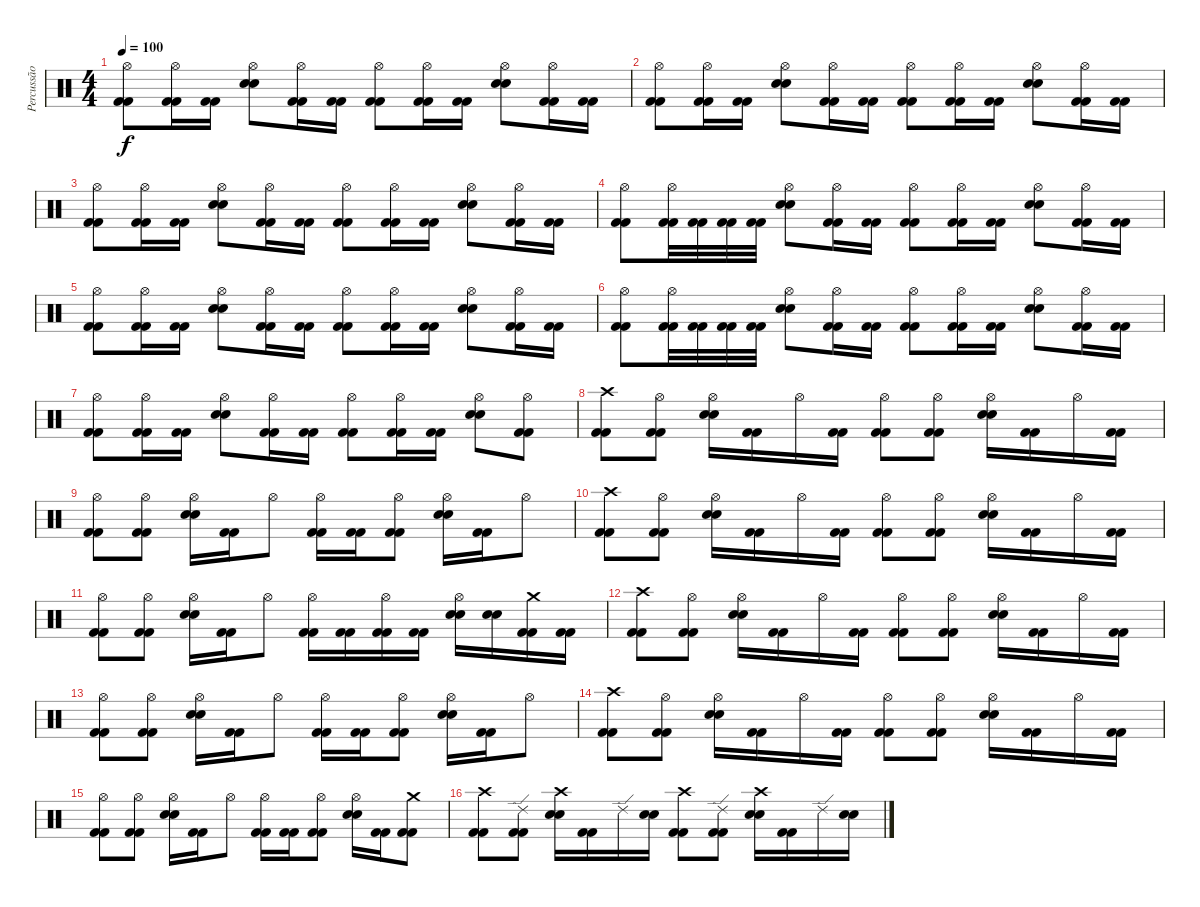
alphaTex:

\track ("Percussão" "Percussão") {instrument percussion}
\staff {score}
\articulation defaults
\ts (4 4)
\tempo 100
\clef neutral
\ks c
("Hi-Hat (open)" "Kick (hit) 2" "Kick (hit) 2").8{dy f} ("Hi-Hat (open)" "Kick (hit) 2" "Kick (hit) 2").16 ("Kick (hit) 2" "Kick (hit) 2").16 ("Hi-Hat (open)" "Electric Snare (hit)" "Electric Snare (hit)").8 ("Hi-Hat (open)" "Kick (hit) 2" "Kick (hit) 2").16 ("Kick (hit) 2" "Kick (hit) 2").16 ("Hi-Hat (open)" "Kick (hit) 2" "Kick (hit) 2").8 ("Hi-Hat (open)" "Kick (hit) 2" "Kick (hit) 2").16 ("Kick (hit) 2" "Kick (hit) 2").16 ("Hi-Hat (open)" "Electric Snare (hit)" "Electric Snare (hit)").8 ("Hi-Hat (open)" "Kick (hit) 2" "Kick (hit) 2").16 ("Kick (hit) 2" "Kick (hit) 2").16 |
("Hi-Hat (open)" "Kick (hit) 2" "Kick (hit) 2").8 ("Hi-Hat (open)" "Kick (hit) 2" "Kick (hit) 2").16 ("Kick (hit) 2" "Kick (hit) 2").16 ("Hi-Hat (open)" "Electric Snare (hit)" "Electric Snare (hit)").8 ("Hi-Hat (open)" "Kick (hit) 2" "Kick (hit) 2").16 ("Kick (hit) 2" "Kick (hit) 2").16 ("Hi-Hat (open)" "Kick (hit) 2" "Kick (hit) 2").8 ("Hi-Hat (open)" "Kick (hit) 2" "Kick (hit) 2").16 ("Kick (hit) 2" "Kick (hit) 2").16 ("Hi-Hat (open)" "Electric Snare (hit)" "Electric Snare (hit)").8 ("Hi-Hat (open)" "Kick (hit) 2" "Kick (hit) 2").16 ("Kick (hit) 2" "Kick (hit) 2").16 |
("Hi-Hat (open)" "Kick (hit) 2" "Kick (hit) 2").8 ("Hi-Hat (open)" "Kick (hit) 2" "Kick (hit) 2").16 ("Kick (hit) 2" "Kick (hit) 2").16 ("Hi-Hat (open)" "Electric Snare (hit)" "Electric Snare (hit)").8 ("Hi-Hat (open)" "Kick (hit) 2" "Kick (hit) 2").16 ("Kick (hit) 2" "Kick (hit) 2").16 ("Hi-Hat (open)" "Kick (hit) 2" "Kick (hit) 2").8 ("Hi-Hat (open)" "Kick (hit) 2" "Kick (hit) 2").16 ("Kick (hit) 2" "Kick (hit) 2").16 ("Hi-Hat (open)" "Electric Snare (hit)" "Electric Snare (hit)").8 ("Hi-Hat (open)" "Kick (hit) 2" "Kick (hit) 2").16 ("Kick (hit) 2" "Kick (hit) 2").16 |
("Hi-Hat (open)" "Kick (hit) 2" "Kick (hit) 2").8 ("Hi-Hat (open)" "Kick (hit) 2" "Kick (hit) 2").32 ("Kick (hit) 2" "Kick (hit) 2").32 ("Kick (hit) 2" "Kick (hit) 2").32 ("Kick (hit) 2" "Kick (hit) 2").32 ("Hi-Hat (open)" "Electric Snare (hit)" "Electric Snare (hit)").8 ("Hi-Hat (open)" "Kick (hit) 2" "Kick (hit) 2").16 ("Kick (hit) 2" "Kick (hit) 2").16 ("Hi-Hat (open)" "Kick (hit) 2" "Kick (hit) 2").8 ("Hi-Hat (open)" "Kick (hit) 2" "Kick (hit) 2").16 ("Kick (hit) 2" "Kick (hit) 2").16 ("Hi-Hat (open)" "Electric Snare (hit)" "Electric Snare (hit)").8 ("Hi-Hat (open)" "Kick (hit) 2" "Kick (hit) 2").16 ("Kick (hit) 2" "Kick (hit) 2").16 |
("Hi-Hat (open)" "Kick (hit) 2" "Kick (hit) 2").8 ("Hi-Hat (open)" "Kick (hit) 2" "Kick (hit) 2").16 ("Kick (hit) 2" "Kick (hit) 2").16 ("Hi-Hat (open)" "Electric Snare (hit)" "Electric Snare (hit)").8 ("Hi-Hat (open)" "Kick (hit) 2" "Kick (hit) 2").16 ("Kick (hit) 2" "Kick (hit) 2").16 ("Hi-Hat (open)" "Kick (hit) 2" "Kick (hit) 2").8 ("Hi-Hat (open)" "Kick (hit) 2" "Kick (hit) 2").16 ("Kick (hit) 2" "Kick (hit) 2").16 ("Hi-Hat (open)" "Electric Snare (hit)" "Electric Snare (hit)").8 ("Hi-Hat (open)" "Kick (hit) 2" "Kick (hit) 2").16 ("Kick (hit) 2" "Kick (hit) 2").16 |
("Hi-Hat (open)" "Kick (hit) 2" "Kick (hit) 2").8 ("Hi-Hat (open)" "Kick (hit) 2" "Kick (hit) 2").32 ("Kick (hit) 2" "Kick (hit) 2").32 ("Kick (hit) 2" "Kick (hit) 2").32 ("Kick (hit) 2" "Kick (hit) 2").32 ("Hi-Hat (open)" "Electric Snare (hit)" "Electric Snare (hit)").8 ("Hi-Hat (open)" "Kick (hit) 2" "Kick (hit) 2").16 ("Kick (hit) 2" "Kick (hit) 2").16 ("Hi-Hat (open)" "Kick (hit) 2" "Kick (hit) 2").8 ("Hi-Hat (open)" "Kick (hit) 2" "Kick (hit) 2").16 ("Kick (hit) 2" "Kick (hit) 2").16 ("Hi-Hat (open)" "Electric Snare (hit)" "Electric Snare (hit)").8 ("Hi-Hat (open)" "Kick (hit) 2" "Kick (hit) 2").16 ("Kick (hit) 2" "Kick (hit) 2").16 |
("Hi-Hat (open)" "Kick (hit) 2" "Kick (hit) 2").8 ("Hi-Hat (open)" "Kick (hit) 2" "Kick (hit) 2").16 ("Kick (hit) 2" "Kick (hit) 2").16 ("Hi-Hat (open)" "Electric Snare (hit)" "Electric Snare (hit)").8 ("Hi-Hat (open)" "Kick (hit) 2" "Kick (hit) 2").16 ("Kick (hit) 2" "Kick (hit) 2").16 ("Hi-Hat (open)" "Kick (hit) 2" "Kick (hit) 2").8 ("Hi-Hat (open)" "Kick (hit) 2" "Kick (hit) 2").16 ("Kick (hit) 2" "Kick (hit) 2").16 ("Hi-Hat (open)" "Electric Snare (hit)" "Electric Snare (hit)").8 ("Hi-Hat (open)" "Kick (hit) 2" "Kick (hit) 2").8 |
("Crash high (hit)" "Kick (hit) 2" "Kick (hit) 2").8 ("Hi-Hat (open)" "Kick (hit) 2" "Kick (hit) 2").8 ("Hi-Hat (open)" "Electric Snare (hit)" "Electric Snare (hit)").16 ("Kick (hit) 2" "Kick (hit) 2").16 "Hi-Hat (open)".16 ("Kick (hit) 2" "Kick (hit) 2").16 ("Hi-Hat (open)" "Kick (hit) 2" "Kick (hit) 2").8 ("Hi-Hat (open)" "Kick (hit) 2" "Kick (hit) 2").8 ("Hi-Hat (open)" "Electric Snare (hit)" "Electric Snare (hit)").16 ("Kick (hit) 2" "Kick (hit) 2").16 "Hi-Hat (open)".16 ("Kick (hit) 2" "Kick (hit) 2").16 |
("Hi-Hat (open)" "Kick (hit) 2" "Kick (hit) 2").8 ("Hi-Hat (open)" "Kick (hit) 2" "Kick (hit) 2").8 ("Hi-Hat (open)" "Electric Snare (hit)" "Electric Snare (hit)").16 ("Kick (hit) 2" "Kick (hit) 2").16 "Hi-Hat (open)".8 ("Hi-Hat (open)" "Kick (hit) 2" "Kick (hit) 2").16 ("Kick (hit) 2" "Kick (hit) 2").16 ("Hi-Hat (open)" "Kick (hit) 2" "Kick (hit) 2").8 ("Hi-Hat (open)" "Electric Snare (hit)" "Electric Snare (hit)").16 ("Kick (hit) 2" "Kick (hit) 2").16 "Hi-Hat (open)".8 |
("Crash high (hit)" "Kick (hit) 2" "Kick (hit) 2").8 ("Hi-Hat (open)" "Kick (hit) 2" "Kick (hit) 2").8 ("Hi-Hat (open)" "Electric Snare (hit)" "Electric Snare (hit)").16 ("Kick (hit) 2" "Kick (hit) 2").16 "Hi-Hat (open)".16 ("Kick (hit) 2" "Kick (hit) 2").16 ("Hi-Hat (open)" "Kick (hit) 2" "Kick (hit) 2").8 ("Hi-Hat (open)" "Kick (hit) 2" "Kick (hit) 2").8 ("Hi-Hat (open)" "Electric Snare (hit)" "Electric Snare (hit)").16 ("Kick (hit) 2" "Kick (hit) 2").16 "Hi-Hat (open)".16 ("Kick (hit) 2" "Kick (hit) 2").16 |
("Hi-Hat (open)" "Kick (hit) 2" "Kick (hit) 2").8 ("Hi-Hat (open)" "Kick (hit) 2" "Kick (hit) 2").8 ("Hi-Hat (open)" "Electric Snare (hit)" "Electric Snare (hit)").16 ("Kick (hit) 2" "Kick (hit) 2").16 "Hi-Hat (open)".8 ("Hi-Hat (open)" "Kick (hit) 2" "Kick (hit) 2").16 ("Kick (hit) 2" "Kick (hit) 2").16 ("Hi-Hat (open)" "Kick (hit) 2" "Kick (hit) 2").16 ("Kick (hit) 2" "Kick (hit) 2").16 ("Hi-Hat (open)" "Electric Snare (hit)" "Electric Snare (hit)").16 ("Electric Snare (hit)" "Electric Snare (hit)").16 ("Crash medium (hit)" "Kick (hit) 2" "Kick (hit) 2").16 ("Kick (hit) 2" "Kick (hit) 2").16 |
("Crash high (hit)" "Kick (hit) 2" "Kick (hit) 2").8 ("Hi-Hat (open)" "Kick (hit) 2" "Kick (hit) 2").8 ("Hi-Hat (open)" "Electric Snare (hit)" "Electric Snare (hit)").16 ("Kick (hit) 2" "Kick (hit) 2").16 "Hi-Hat (open)".16 ("Kick (hit) 2" "Kick (hit) 2").16 ("Hi-Hat (open)" "Kick (hit) 2" "Kick (hit) 2").8 ("Hi-Hat (open)" "Kick (hit) 2" "Kick (hit) 2").8 ("Hi-Hat (open)" "Electric Snare (hit)" "Electric Snare (hit)").16 ("Kick (hit) 2" "Kick (hit) 2").16 "Hi-Hat (open)".16 ("Kick (hit) 2" "Kick (hit) 2").16 |
("Hi-Hat (open)" "Kick (hit) 2" "Kick (hit) 2").8 ("Hi-Hat (open)" "Kick (hit) 2" "Kick (hit) 2").8 ("Hi-Hat (open)" "Electric Snare (hit)" "Electric Snare (hit)").16 ("Kick (hit) 2" "Kick (hit) 2").16 "Hi-Hat (open)".8 ("Hi-Hat (open)" "Kick (hit) 2" "Kick (hit) 2").16 ("Kick (hit) 2" "Kick (hit) 2").16 ("Hi-Hat (open)" "Kick (hit) 2" "Kick (hit) 2").8 ("Hi-Hat (open)" "Electric Snare (hit)" "Electric Snare (hit)").16 ("Kick (hit) 2" "Kick (hit) 2").16 "Hi-Hat (open)".8 |
("Crash high (hit)" "Kick (hit) 2" "Kick (hit) 2").8 ("Hi-Hat (open)" "Kick (hit) 2" "Kick (hit) 2").8 ("Hi-Hat (open)" "Electric Snare (hit)" "Electric Snare (hit)").16 ("Kick (hit) 2" "Kick (hit) 2").16 "Hi-Hat (open)".16 ("Kick (hit) 2" "Kick (hit) 2").16 ("Hi-Hat (open)" "Kick (hit) 2" "Kick (hit) 2").8 ("Hi-Hat (open)" "Kick (hit) 2" "Kick (hit) 2").8 ("Hi-Hat (open)" "Electric Snare (hit)" "Electric Snare (hit)").16 ("Kick (hit) 2" "Kick (hit) 2").16 "Hi-Hat (open)".16 ("Kick (hit) 2" "Kick (hit) 2").16 |
("Hi-Hat (open)" "Kick (hit) 2" "Kick (hit) 2").8 ("Hi-Hat (open)" "Kick (hit) 2" "Kick (hit) 2").8 ("Hi-Hat (open)" "Electric Snare (hit)" "Electric Snare (hit)").16 ("Kick (hit) 2" "Kick (hit) 2").16 "Hi-Hat (open)".8 ("Hi-Hat (open)" "Kick (hit) 2" "Kick (hit) 2").16 ("Kick (hit) 2" "Kick (hit) 2").16 ("Hi-Hat (open)" "Kick (hit) 2" "Kick (hit) 2").8 ("Hi-Hat (open)" "Electric Snare (hit)" "Electric Snare (hit)").16 ("Kick (hit) 2" "Kick (hit) 2").16 ("Crash medium (hit)" "Kick (hit) 2" "Kick (hit) 2").8 |
("Crash high (hit)" "Kick (hit) 2" "Kick (hit) 2").8 ("Ride (edge) 2" "Kick (hit) 2" "Kick (hit) 2").8 ("Crash high (hit)" "Electric Snare (hit)" "Electric Snare (hit)").16 ("Kick (hit) 2" "Kick (hit) 2").16 "Ride (edge) 2".16 ("Electric Snare (hit)" "Electric Snare (hit)").16 ("Crash high (hit)" "Kick (hit) 2" "Kick (hit) 2").8 ("Ride (edge) 2" "Kick (hit) 2" "Kick (hit) 2").8 ("Crash high (hit)" "Electric Snare (hit)" "Electric Snare (hit)").16 ("Kick (hit) 2" "Kick (hit) 2").16 "Ride (edge) 2".16 ("Electric Snare (hit)" "Electric Snare (hit)").16
